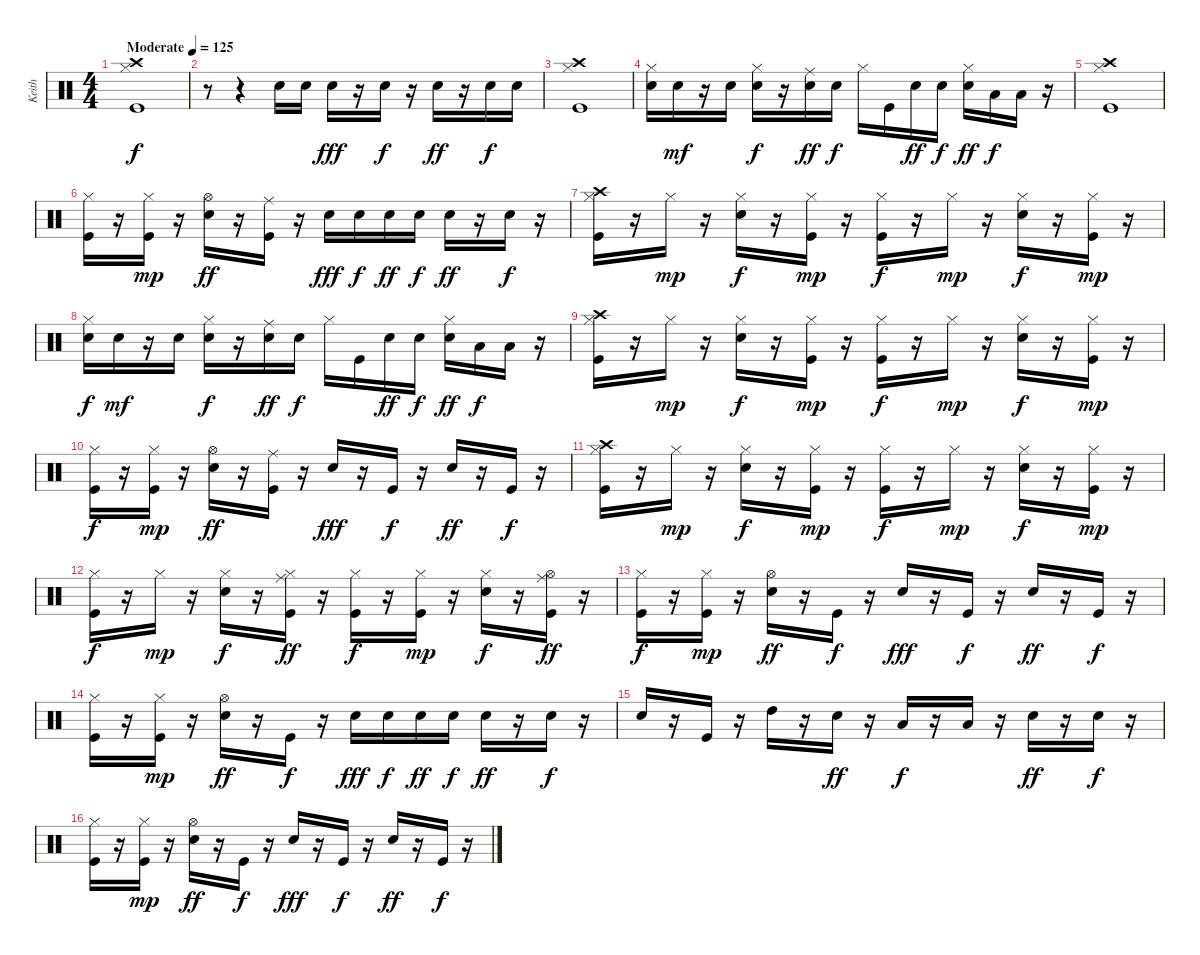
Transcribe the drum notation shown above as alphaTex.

\track ("Keith" "Keith") {instrument percussion}
\staff {score}
\articulation defaults
\ts (4 4)
\tempo (125 "Moderate")
\clef neutral
\ks c
("Kick (hit)" "Hi-Hat (closed)" "Crash high (hit)").1{dy f} |
r.8 r.4 "Snare (hit) 2".16 "Snare (hit) 2".16 "Snare (hit) 2".16{dy fff} r.16 "Snare (hit) 2".16{dy f} r.16 "Snare (hit) 2".16{dy ff} r.16 "Snare (hit) 2".16{dy f} "Snare (hit) 2".16 |
("Kick (hit)" "Hi-Hat (closed)" "Crash high (hit)").1 |
("Snare (hit) 2" "Hi-Hat (closed)").16 "Snare (hit) 2".16{dy mf} r.16 "Snare (hit) 2".16 ("Snare (hit) 2" "Hi-Hat (closed)").16{dy f} r.16 ("Snare (hit) 2" "Ride (middle)").16{dy ff} "Snare (hit) 2".16{dy f} "Hi-Hat (closed)".16 "Kick (hit)".16 "Snare (hit) 2".16{dy ff} "Snare (hit) 2".16{dy f} ("Snare (hit) 2" "Hi-Hat (closed)").16{dy ff} "Low Tom (hit)".16{dy f} "Low Floor Tom (hit)".16 r.16 |
("Kick (hit)" "Hi-Hat (closed)" "Crash high (hit)").1 |
("Kick (hit)" "Hi-Hat (closed)").16 r.16 ("Kick (hit)" "Hi-Hat (closed)").16{dy mp} r.16 ("Snare (hit) 2" "Hi-Hat (open)").16{dy ff} r.16 ("Kick (hit)" "Ride (middle)").16 r.16 "Snare (hit) 2".16{dy fff} "Snare (hit) 2".16{dy f} "Snare (hit) 2".16{dy ff} "Snare (hit) 2".16{dy f} "Snare (hit) 2".16{dy ff} r.16 "Snare (hit) 2".16{dy f} r.16 |
("Kick (hit)" "Hi-Hat (closed)" "Crash high (hit)").16 r.16 "Hi-Hat (closed)".16{dy mp} r.16 ("Snare (hit) 2" "Hi-Hat (closed)").16{dy f} r.16 ("Kick (hit)" "Hi-Hat (closed)").16{dy mp} r.16 ("Kick (hit)" "Hi-Hat (closed)").16{dy f} r.16 "Hi-Hat (closed)".16{dy mp} r.16 ("Snare (hit) 2" "Hi-Hat (closed)").16{dy f} r.16 ("Kick (hit)" "Hi-Hat (closed)").16{dy mp} r.16 |
("Snare (hit) 2" "Hi-Hat (closed)").16{dy f} "Snare (hit) 2".16{dy mf} r.16 "Snare (hit) 2".16 ("Snare (hit) 2" "Hi-Hat (closed)").16{dy f} r.16 ("Snare (hit) 2" "Ride (middle)").16{dy ff} "Snare (hit) 2".16{dy f} "Hi-Hat (closed)".16 "Kick (hit)".16 "Snare (hit) 2".16{dy ff} "Snare (hit) 2".16{dy f} ("Snare (hit) 2" "Hi-Hat (closed)").16{dy ff} "Low Tom (hit)".16{dy f} "Low Floor Tom (hit)".16 r.16 |
("Kick (hit)" "Hi-Hat (closed)" "Crash high (hit)").16 r.16 "Hi-Hat (closed)".16{dy mp} r.16 ("Snare (hit) 2" "Hi-Hat (closed)").16{dy f} r.16 ("Kick (hit)" "Hi-Hat (closed)").16{dy mp} r.16 ("Kick (hit)" "Hi-Hat (closed)").16{dy f} r.16 "Hi-Hat (closed)".16{dy mp} r.16 ("Snare (hit) 2" "Hi-Hat (closed)").16{dy f} r.16 ("Kick (hit)" "Hi-Hat (closed)").16{dy mp} r.16 |
("Kick (hit)" "Hi-Hat (closed)").16{dy f} r.16 ("Kick (hit)" "Hi-Hat (closed)").16{dy mp} r.16 ("Snare (hit) 2" "Hi-Hat (open)").16{dy ff} r.16 ("Kick (hit)" "Ride (middle)").16 r.16 "Snare (hit) 2".16{dy fff} r.16 "Kick (hit)".16{dy f} r.16 "Snare (hit) 2".16{dy ff} r.16 "Kick (hit)".16{dy f} r.16 |
("Kick (hit)" "Hi-Hat (closed)" "Crash high (hit)").16 r.16 "Hi-Hat (closed)".16{dy mp} r.16 ("Snare (hit) 2" "Hi-Hat (closed)").16{dy f} r.16 ("Kick (hit)" "Hi-Hat (closed)").16{dy mp} r.16 ("Kick (hit)" "Hi-Hat (closed)").16{dy f} r.16 "Hi-Hat (closed)".16{dy mp} r.16 ("Snare (hit) 2" "Hi-Hat (closed)").16{dy f} r.16 ("Kick (hit)" "Hi-Hat (closed)").16{dy mp} r.16 |
("Kick (hit)" "Hi-Hat (closed)").16{dy f} r.16 "Hi-Hat (closed)".16{dy mp} r.16 ("Snare (hit) 2" "Hi-Hat (closed)").16{dy f} r.16 ("Kick (hit)" "Hi-Hat (closed)" "Ride (middle)").16{dy ff} r.16 ("Kick (hit)" "Hi-Hat (closed)").16{dy f} r.16 ("Kick (hit)" "Hi-Hat (closed)").16{dy mp} r.16 ("Snare (hit) 2" "Hi-Hat (closed)").16{dy f} r.16 ("Kick (hit)" "Hi-Hat (open)" "Ride (middle)").16{dy ff} r.16 |
("Kick (hit)" "Hi-Hat (closed)").16{dy f} r.16 ("Kick (hit)" "Hi-Hat (closed)").16{dy mp} r.16 ("Snare (hit) 2" "Hi-Hat (open)").16{dy ff} r.16 "Kick (hit)".16{dy f} r.16 "Snare (hit) 2".16{dy fff} r.16 "Kick (hit)".16{dy f} r.16 "Snare (hit) 2".16{dy ff} r.16 "Kick (hit)".16{dy f} r.16 |
("Kick (hit)" "Hi-Hat (closed)").16 r.16 ("Kick (hit)" "Hi-Hat (closed)").16{dy mp} r.16 ("Snare (hit) 2" "Hi-Hat (open)").16{dy ff} r.16 "Kick (hit)".16{dy f} r.16 "Snare (hit) 2".16{dy fff} "Snare (hit) 2".16{dy f} "Snare (hit) 2".16{dy ff} "Snare (hit) 2".16{dy f} "Snare (hit) 2".16{dy ff} r.16 "Snare (hit) 2".16{dy f} r.16 |
"Snare (hit) 2".16 r.16 "Kick (hit)".16 r.16 "High Tom (hit)".16 r.16 "Snare (hit) 2".16{dy ff} r.16 "Low Tom (hit)".16{dy f} r.16 "Low Tom (hit)".16 r.16 "Snare (hit) 2".16{dy ff} r.16 "Snare (hit) 2".16{dy f} r.16 |
("Kick (hit)" "Hi-Hat (closed)").16 r.16 ("Kick (hit)" "Hi-Hat (closed)").16{dy mp} r.16 ("Snare (hit) 2" "Hi-Hat (open)").16{dy ff} r.16 "Kick (hit)".16{dy f} r.16 "Snare (hit) 2".16{dy fff} r.16 "Kick (hit)".16{dy f} r.16 "Snare (hit) 2".16{dy ff} r.16 "Kick (hit)".16{dy f} r.16
